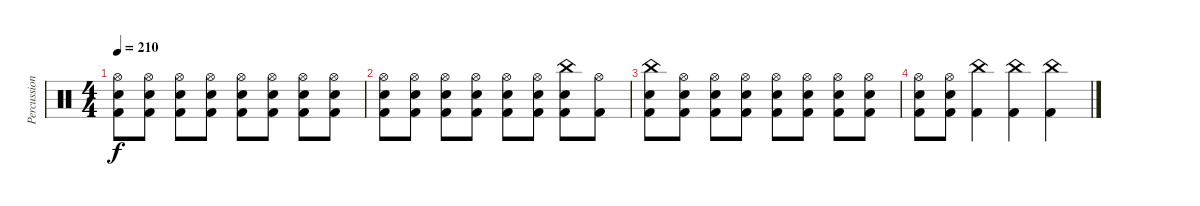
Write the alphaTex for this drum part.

\track ("Percussion" "Percussion") {instrument percussion}
\staff {score}
\articulation defaults
\ts (4 4)
\tempo 210
\clef neutral
\ks c
("Hi-Hat (open)" "Electric Snare (hit)" "Kick (hit) 2").8{dy f} ("Hi-Hat (open)" "Electric Snare (hit)" "Kick (hit) 2").8 ("Hi-Hat (open)" "Electric Snare (hit)" "Kick (hit) 2").8 ("Hi-Hat (open)" "Electric Snare (hit)" "Kick (hit) 2").8 ("Hi-Hat (open)" "Electric Snare (hit)" "Kick (hit) 2").8 ("Hi-Hat (open)" "Electric Snare (hit)" "Kick (hit) 2").8 ("Hi-Hat (open)" "Electric Snare (hit)" "Kick (hit) 2").8 ("Hi-Hat (open)" "Electric Snare (hit)" "Kick (hit) 2").8 |
("Hi-Hat (open)" "Electric Snare (hit)" "Kick (hit) 2").8 ("Hi-Hat (open)" "Electric Snare (hit)" "Kick (hit) 2").8 ("Hi-Hat (open)" "Electric Snare (hit)" "Kick (hit) 2").8 ("Hi-Hat (open)" "Electric Snare (hit)" "Kick (hit) 2").8 ("Hi-Hat (open)" "Electric Snare (hit)" "Kick (hit) 2").8 ("Hi-Hat (open)" "Electric Snare (hit)" "Kick (hit) 2").8 ("China (hit)" "Electric Snare (hit)" "Kick (hit) 2").8 ("Hi-Hat (open)" "Kick (hit) 2").8 |
("China (hit)" "Electric Snare (hit)" "Kick (hit) 2").8 ("Hi-Hat (open)" "Electric Snare (hit)" "Kick (hit) 2").8 ("Hi-Hat (open)" "Electric Snare (hit)" "Kick (hit) 2").8 ("Hi-Hat (open)" "Electric Snare (hit)" "Kick (hit) 2").8 ("Hi-Hat (open)" "Electric Snare (hit)" "Kick (hit) 2").8 ("Hi-Hat (open)" "Electric Snare (hit)" "Kick (hit) 2").8 ("Hi-Hat (open)" "Electric Snare (hit)" "Kick (hit) 2").8 ("Hi-Hat (open)" "Electric Snare (hit)" "Kick (hit) 2").8 |
("Hi-Hat (open)" "Electric Snare (hit)" "Kick (hit) 2").8 ("Hi-Hat (open)" "Electric Snare (hit)" "Kick (hit) 2").8 ("China (hit)" "Kick (hit) 2").4 ("China (hit)" "Kick (hit) 2").4 ("China (hit)" "Kick (hit) 2").4
